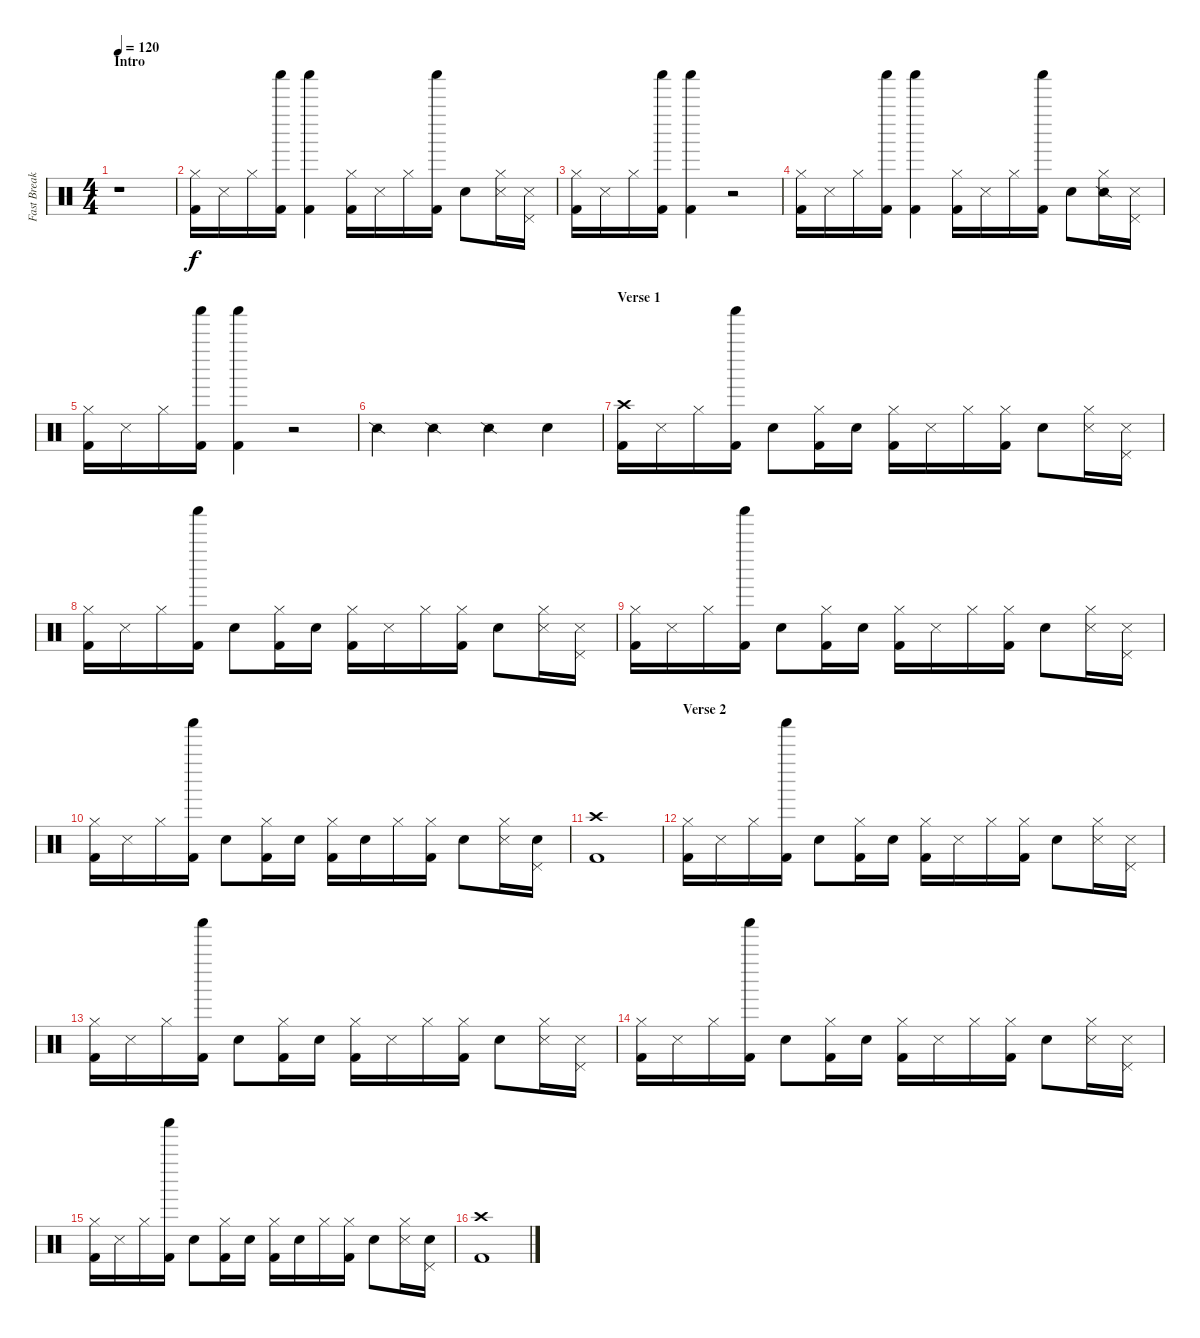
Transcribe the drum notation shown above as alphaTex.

\track ("Fast Break Drums" "Fast Break") {instrument percussion}
\staff {score}
\articulation defaults
\ts (4 4)
\section ("" "Intro")
\tempo 120
\clef neutral
\ks c
r.1{dy f} |
("Kick (hit) 2" "Hi-Hat (closed)").16 "Snare (side stick) 3".16 "Hi-Hat (closed)".16 ("Kick (hit) 2" "Shaker (hit)").16 ("Kick (hit) 2" "Shaker (hit)").4 ("Kick (hit) 2" "Hi-Hat (closed)").16 "Snare (side stick) 3".16 "Hi-Hat (closed)".16 ("Kick (hit) 2" "Shaker (hit)").16 "Snare (hit) 2".8 ("Snare (side stick) 3" "Hi-Hat (closed)").16 ("Snare (side stick) 3" "Pedal Hi-Hat (hit)").16 |
("Kick (hit) 2" "Hi-Hat (closed)").16 "Snare (side stick) 3".16 "Hi-Hat (closed)".16 ("Kick (hit) 2" "Shaker (hit)").16 ("Kick (hit) 2" "Shaker (hit)").4 r.2 |
("Kick (hit) 2" "Hi-Hat (closed)").16 "Snare (side stick) 3".16 "Hi-Hat (closed)".16 ("Kick (hit) 2" "Shaker (hit)").16 ("Kick (hit) 2" "Shaker (hit)").4 ("Kick (hit) 2" "Hi-Hat (closed)").16 "Snare (side stick) 3".16 "Hi-Hat (closed)".16 ("Kick (hit) 2" "Shaker (hit)").16 "Snare (hit) 2".8 ("Snare (side stick) 2" "Hi-Hat (closed)").16 ("Snare (side stick) 3" "Pedal Hi-Hat (hit)").16 |
("Kick (hit) 2" "Hi-Hat (closed)").16 "Snare (side stick) 3".16 "Hi-Hat (closed)".16 ("Kick (hit) 2" "Shaker (hit)").16 ("Kick (hit) 2" "Shaker (hit)").4 r.2 |
"Snare (side stick) 2".4 "Snare (side stick) 2".4 "Snare (side stick) 2".4 "Snare (hit) 2".4 |
\section ("" "Verse 1")
("Kick (hit) 2" "Crash high (hit)").16 "Snare (side stick) 3".16 "Hi-Hat (closed)".16 ("Kick (hit) 2" "Shaker (hit)").16 "Snare (hit) 2".8 ("Kick (hit) 2" "Hi-Hat (closed)").16 "Snare (hit) 2".16 ("Kick (hit) 2" "Hi-Hat (closed)").16 "Snare (side stick) 3".16 "Hi-Hat (closed)".16 ("Kick (hit) 2" "Hi-Hat (closed)").16 "Snare (hit) 2".8 ("Snare (side stick) 3" "Hi-Hat (closed)").16 ("Snare (side stick) 3" "Pedal Hi-Hat (hit)").16 |
("Kick (hit) 2" "Hi-Hat (closed)").16 "Snare (side stick) 3".16 "Hi-Hat (closed)".16 ("Kick (hit) 2" "Shaker (hit)").16 "Snare (hit) 2".8 ("Kick (hit) 2" "Hi-Hat (closed)").16 "Snare (hit) 2".16 ("Kick (hit) 2" "Hi-Hat (closed)").16 "Snare (side stick) 3".16 "Hi-Hat (closed)".16 ("Kick (hit) 2" "Hi-Hat (closed)").16 "Snare (hit) 2".8 ("Snare (side stick) 3" "Hi-Hat (closed)").16 ("Snare (side stick) 3" "Pedal Hi-Hat (hit)").16 |
("Kick (hit) 2" "Hi-Hat (closed)").16 "Snare (side stick) 3".16 "Hi-Hat (closed)".16 ("Kick (hit) 2" "Shaker (hit)").16 "Snare (hit) 2".8 ("Kick (hit) 2" "Hi-Hat (closed)").16 "Snare (hit) 2".16 ("Kick (hit) 2" "Hi-Hat (closed)").16 "Snare (side stick) 3".16 "Hi-Hat (closed)".16 ("Kick (hit) 2" "Hi-Hat (closed)").16 "Snare (hit) 2".8 ("Snare (side stick) 3" "Hi-Hat (closed)").16 ("Snare (side stick) 3" "Pedal Hi-Hat (hit)").16 |
("Kick (hit) 2" "Hi-Hat (closed)").16 "Snare (side stick) 3".16 "Hi-Hat (closed)".16 ("Kick (hit) 2" "Shaker (hit)").16 "Snare (hit) 2".8 ("Kick (hit) 2" "Hi-Hat (closed)").16 "Snare (hit) 2".16 ("Kick (hit) 2" "Hi-Hat (closed)").16 "Snare (hit) 2".16 "Hi-Hat (closed)".16 ("Kick (hit) 2" "Hi-Hat (closed)").16 "Snare (hit) 2".8 ("Snare (side stick) 3" "Hi-Hat (closed)").16 ("Snare (hit) 2" "Pedal Hi-Hat (hit)").16 |
("Kick (hit) 2" "Crash high (hit)").1 |
\section ("" "Verse 2")
("Kick (hit) 2" "Hi-Hat (closed)").16 "Snare (side stick) 3".16 "Hi-Hat (closed)".16 ("Kick (hit) 2" "Shaker (hit)").16 "Snare (hit) 2".8 ("Kick (hit) 2" "Hi-Hat (closed)").16 "Snare (hit) 2".16 ("Kick (hit) 2" "Hi-Hat (closed)").16 "Snare (side stick) 3".16 "Hi-Hat (closed)".16 ("Kick (hit) 2" "Hi-Hat (closed)").16 "Snare (hit) 2".8 ("Snare (side stick) 3" "Hi-Hat (closed)").16 ("Snare (side stick) 3" "Pedal Hi-Hat (hit)").16 |
("Kick (hit) 2" "Hi-Hat (closed)").16 "Snare (side stick) 3".16 "Hi-Hat (closed)".16 ("Kick (hit) 2" "Shaker (hit)").16 "Snare (hit) 2".8 ("Kick (hit) 2" "Hi-Hat (closed)").16 "Snare (hit) 2".16 ("Kick (hit) 2" "Hi-Hat (closed)").16 "Snare (side stick) 3".16 "Hi-Hat (closed)".16 ("Kick (hit) 2" "Hi-Hat (closed)").16 "Snare (hit) 2".8 ("Snare (side stick) 3" "Hi-Hat (closed)").16 ("Snare (side stick) 3" "Pedal Hi-Hat (hit)").16 |
("Kick (hit) 2" "Hi-Hat (closed)").16 "Snare (side stick) 3".16 "Hi-Hat (closed)".16 ("Kick (hit) 2" "Shaker (hit)").16 "Snare (hit) 2".8 ("Kick (hit) 2" "Hi-Hat (closed)").16 "Snare (hit) 2".16 ("Kick (hit) 2" "Hi-Hat (closed)").16 "Snare (side stick) 3".16 "Hi-Hat (closed)".16 ("Kick (hit) 2" "Hi-Hat (closed)").16 "Snare (hit) 2".8 ("Snare (side stick) 3" "Hi-Hat (closed)").16 ("Snare (side stick) 3" "Pedal Hi-Hat (hit)").16 |
("Kick (hit) 2" "Hi-Hat (closed)").16 "Snare (side stick) 3".16 "Hi-Hat (closed)".16 ("Kick (hit) 2" "Shaker (hit)").16 "Snare (hit) 2".8 ("Kick (hit) 2" "Hi-Hat (closed)").16 "Snare (hit) 2".16 ("Kick (hit) 2" "Hi-Hat (closed)").16 "Snare (hit) 2".16 "Hi-Hat (closed)".16 ("Kick (hit) 2" "Hi-Hat (closed)").16 "Snare (hit) 2".8 ("Snare (side stick) 3" "Hi-Hat (closed)").16 ("Snare (hit) 2" "Pedal Hi-Hat (hit)").16 |
("Kick (hit) 2" "Crash high (hit)").1
